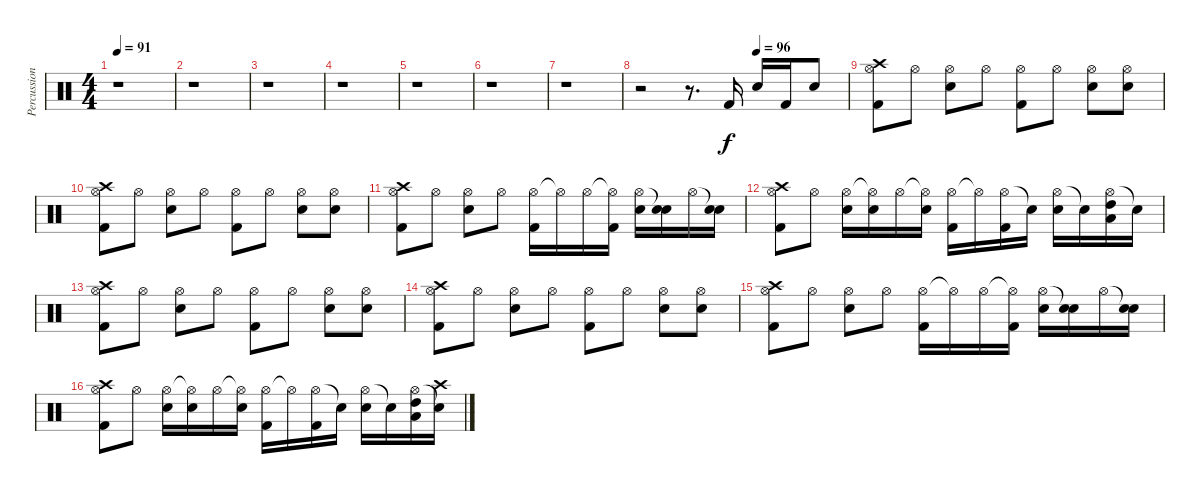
\track ("Percussion" "Percussion") {instrument percussion}
\staff {score}
\articulation defaults
\ts (4 4)
\tempo 91
\clef neutral
\ks c
r.1{dy f} |
r.1 |
r.1 |
r.1 |
r.1 |
r.1 |
r.1 |
\tempo (96 0.5625)
r.2 r.8{d} "Kick (hit) 2".16 "Electric Snare (hit)".16 "Kick (hit) 2".16 "Electric Snare (hit)".8 |
("Hi-Hat (open)" "Kick (hit) 2" "Crash high (hit)").8 "Hi-Hat (open)".8 ("Hi-Hat (open)" "Electric Snare (hit)").8 "Hi-Hat (open)".8 ("Hi-Hat (open)" "Kick (hit) 2").8 "Hi-Hat (open)".8 ("Hi-Hat (open)" "Electric Snare (hit)").8 ("Hi-Hat (open)" "Electric Snare (hit)").8 |
("Hi-Hat (open)" "Kick (hit) 2" "Crash high (hit)").8 "Hi-Hat (open)".8 ("Hi-Hat (open)" "Electric Snare (hit)").8 "Hi-Hat (open)".8 ("Hi-Hat (open)" "Kick (hit) 2").8 "Hi-Hat (open)".8 ("Hi-Hat (open)" "Electric Snare (hit)").8 ("Hi-Hat (open)" "Electric Snare (hit)").8 |
("Hi-Hat (open)" "Kick (hit) 2" "Crash high (hit)").8 "Hi-Hat (open)".8 ("Hi-Hat (open)" "Electric Snare (hit)").8 "Hi-Hat (open)".8 ("Hi-Hat (open)" "Kick (hit) 2").16 "Hi-Hat (open)"{t}.16 "Hi-Hat (open)".16 ("Hi-Hat (open)"{t} "Kick (hit) 2").16 ("Hi-Hat (open)" "Electric Snare (hit)").16 ("Snare (hit)"{t} "Electric Snare (hit)").16 "Hi-Hat (open)".16 ("Snare (hit)"{t} "Electric Snare (hit)").16 |
("Hi-Hat (open)" "Kick (hit) 2" "Crash high (hit)").8 "Hi-Hat (open)".8 ("Hi-Hat (open)" "Electric Snare (hit)").16 ("Hi-Hat (open)"{t} "Electric Snare (hit)").16 "Hi-Hat (open)".16 ("Hi-Hat (open)"{t} "Electric Snare (hit)").16 ("Hi-Hat (open)" "Kick (hit) 2").16 "Hi-Hat (open)"{t}.16 ("Hi-Hat (open)" "Kick (hit) 2").16 "Snare (hit)"{t}.16 ("Hi-Hat (open)" "Electric Snare (hit)").16 "Snare (hit)"{t}.16 ("Hi-Hat (open)" "High Tom (hit)" "Low Tom (hit)").16 "Snare (hit)"{t}.16 |
("Hi-Hat (open)" "Kick (hit) 2" "Crash high (hit)").8 "Hi-Hat (open)".8 ("Hi-Hat (open)" "Electric Snare (hit)").8 "Hi-Hat (open)".8 ("Hi-Hat (open)" "Kick (hit) 2").8 "Hi-Hat (open)".8 ("Hi-Hat (open)" "Electric Snare (hit)").8 ("Hi-Hat (open)" "Electric Snare (hit)").8 |
("Hi-Hat (open)" "Kick (hit) 2" "Crash high (hit)").8 "Hi-Hat (open)".8 ("Hi-Hat (open)" "Electric Snare (hit)").8 "Hi-Hat (open)".8 ("Hi-Hat (open)" "Kick (hit) 2").8 "Hi-Hat (open)".8 ("Hi-Hat (open)" "Electric Snare (hit)").8 ("Hi-Hat (open)" "Electric Snare (hit)").8 |
("Hi-Hat (open)" "Kick (hit) 2" "Crash high (hit)").8 "Hi-Hat (open)".8 ("Hi-Hat (open)" "Electric Snare (hit)").8 "Hi-Hat (open)".8 ("Hi-Hat (open)" "Kick (hit) 2").16 "Hi-Hat (open)"{t}.16 "Hi-Hat (open)".16 ("Hi-Hat (open)"{t} "Kick (hit) 2").16 ("Hi-Hat (open)" "Electric Snare (hit)").16 ("Snare (hit)"{t} "Electric Snare (hit)").16 "Hi-Hat (open)".16 ("Snare (hit)"{t} "Electric Snare (hit)").16 |
("Hi-Hat (open)" "Kick (hit) 2" "Crash high (hit)").8 "Hi-Hat (open)".8 ("Hi-Hat (open)" "Electric Snare (hit)").16 ("Hi-Hat (open)"{t} "Electric Snare (hit)").16 "Hi-Hat (open)".16 ("Hi-Hat (open)"{t} "Electric Snare (hit)").16 ("Hi-Hat (open)" "Kick (hit) 2").16 "Hi-Hat (open)"{t}.16 ("Hi-Hat (open)" "Kick (hit) 2").16 "Snare (hit)"{t}.16 ("Hi-Hat (open)" "Electric Snare (hit)").16 "Snare (hit)"{t}.16 ("Hi-Hat (open)" "High Tom (hit)" "Low Tom (hit)").16 ("Snare (hit)"{t} "Crash high (hit)").16
